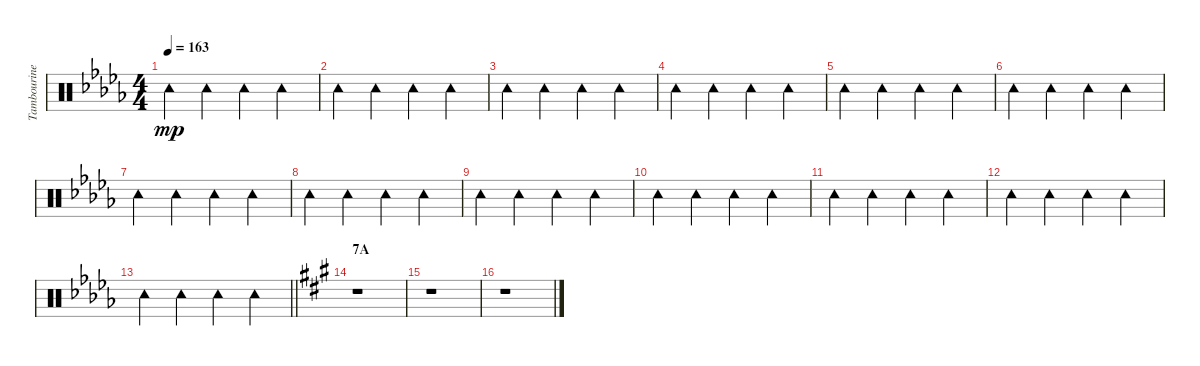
\track ("Tambourine" "Tambourine") {instrument percussion}
\staff {score}
\articulation defaults
\ts (4 4)
\tempo 163
\clef neutral
\ks db "Tambourine (hit)".4{dy mp} "Tambourine (hit)".4 "Tambourine (hit)".4 "Tambourine (hit)".4
|
"Tambourine (hit)".4 "Tambourine (hit)".4 "Tambourine (hit)".4 "Tambourine (hit)".4 |
"Tambourine (hit)".4 "Tambourine (hit)".4 "Tambourine (hit)".4 "Tambourine (hit)".4 |
"Tambourine (hit)".4 "Tambourine (hit)".4 "Tambourine (hit)".4 "Tambourine (hit)".4 |
"Tambourine (hit)".4 "Tambourine (hit)".4 "Tambourine (hit)".4 "Tambourine (hit)".4 |
"Tambourine (hit)".4 "Tambourine (hit)".4 "Tambourine (hit)".4 "Tambourine (hit)".4 |
"Tambourine (hit)".4 "Tambourine (hit)".4 "Tambourine (hit)".4 "Tambourine (hit)".4 |
"Tambourine (hit)".4 "Tambourine (hit)".4 "Tambourine (hit)".4 "Tambourine (hit)".4 |
"Tambourine (hit)".4 "Tambourine (hit)".4 "Tambourine (hit)".4 "Tambourine (hit)".4 |
"Tambourine (hit)".4 "Tambourine (hit)".4 "Tambourine (hit)".4 "Tambourine (hit)".4 |
"Tambourine (hit)".4 "Tambourine (hit)".4 "Tambourine (hit)".4 "Tambourine (hit)".4 |
"Tambourine (hit)".4 "Tambourine (hit)".4 "Tambourine (hit)".4 "Tambourine (hit)".4 |
\barLineRight lightlight "Tambourine (hit)".4 "Tambourine (hit)".4 "Tambourine (hit)".4 "Tambourine (hit)".4
|
\section ("" "7A")
\ks a
r.1 |
r.1 |
r.1
